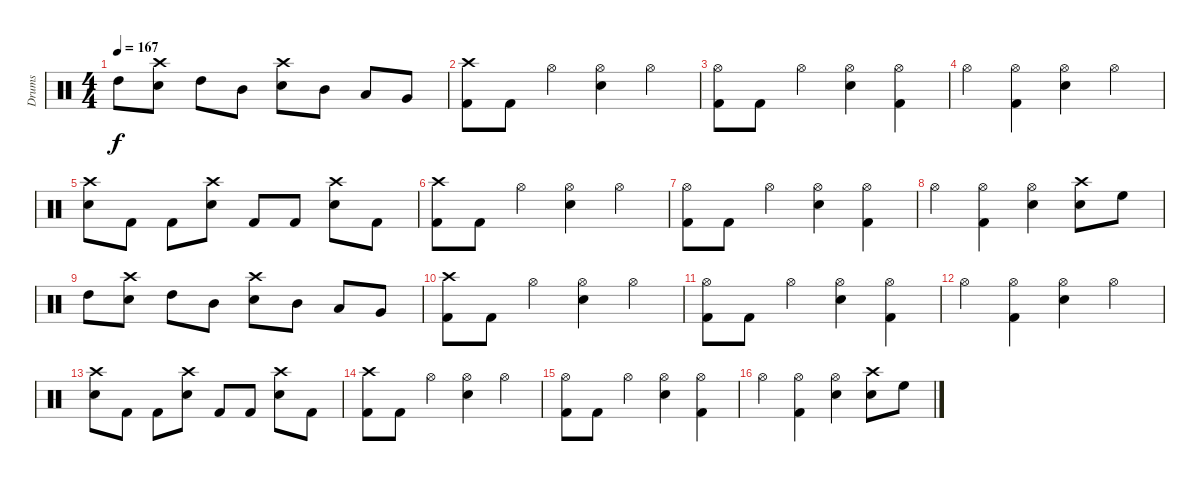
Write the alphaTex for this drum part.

\track ("Drums" "Drums") {instrument percussion}
\staff {score}
\articulation defaults
\ts (4 4)
\tempo 167
\clef neutral
\ks c "High Tom (hit)".8{dy f}
("Crash high (hit)" "Snare (hit) 2").8 "High Tom (hit)".8 "Mid Tom (hit)".8 ("Crash high (hit)" "Snare (hit) 2").8 "Mid Tom (hit)".8 "Low Tom (hit)".8 "Very Low Tom (hit)".8 |
("Crash high (hit)" "Kick (hit) 2").8 "Kick (hit) 2".8 "Hi-Hat (open)".4 ("Hi-Hat (open)" "Snare (hit) 2").4 "Hi-Hat (open)".4 |
("Hi-Hat (open)" "Kick (hit) 2").8 "Kick (hit) 2".8 "Hi-Hat (open)".4 ("Hi-Hat (open)" "Snare (hit) 2").4 ("Hi-Hat (open)" "Kick (hit) 2").4 |
"Hi-Hat (open)".4 ("Hi-Hat (open)" "Kick (hit) 2").4 ("Hi-Hat (open)" "Snare (hit) 2").4 "Hi-Hat (open)".4 |
("Crash high (hit)" "Snare (hit) 2").8 "Kick (hit) 2".8 "Kick (hit) 2".8 ("Crash high (hit)" "Snare (hit) 2").8 "Kick (hit) 2".8 "Kick (hit) 2".8 ("Crash high (hit)" "Snare (hit) 2").8 "Kick (hit) 2".8 |
("Crash high (hit)" "Kick (hit) 2").8 "Kick (hit) 2".8 "Hi-Hat (open)".4 ("Hi-Hat (open)" "Snare (hit) 2").4 "Hi-Hat (open)".4 |
("Hi-Hat (open)" "Kick (hit) 2").8 "Kick (hit) 2".8 "Hi-Hat (open)".4 ("Hi-Hat (open)" "Snare (hit) 2").4 ("Hi-Hat (open)" "Kick (hit) 2").4 |
"Hi-Hat (open)".4 ("Hi-Hat (open)" "Kick (hit) 2").4 ("Hi-Hat (open)" "Snare (hit) 2").4 ("Crash high (hit)" "Snare (hit) 2").8 "High Floor Tom (hit)".8 |
"High Tom (hit)".8 ("Crash high (hit)" "Snare (hit) 2").8 "High Tom (hit)".8 "Mid Tom (hit)".8 ("Crash high (hit)" "Snare (hit) 2").8 "Mid Tom (hit)".8 "Low Tom (hit)".8 "Very Low Tom (hit)".8 |
("Crash high (hit)" "Kick (hit) 2").8 "Kick (hit) 2".8 "Hi-Hat (open)".4 ("Hi-Hat (open)" "Snare (hit) 2").4 "Hi-Hat (open)".4 |
("Hi-Hat (open)" "Kick (hit) 2").8 "Kick (hit) 2".8 "Hi-Hat (open)".4 ("Hi-Hat (open)" "Snare (hit) 2").4 ("Hi-Hat (open)" "Kick (hit) 2").4 |
"Hi-Hat (open)".4 ("Hi-Hat (open)" "Kick (hit) 2").4 ("Hi-Hat (open)" "Snare (hit) 2").4 "Hi-Hat (open)".4 |
("Crash high (hit)" "Snare (hit) 2").8 "Kick (hit) 2".8 "Kick (hit) 2".8 ("Crash high (hit)" "Snare (hit) 2").8 "Kick (hit) 2".8 "Kick (hit) 2".8 ("Crash high (hit)" "Snare (hit) 2").8 "Kick (hit) 2".8 |
("Crash high (hit)" "Kick (hit) 2").8 "Kick (hit) 2".8 "Hi-Hat (open)".4 ("Hi-Hat (open)" "Snare (hit) 2").4 "Hi-Hat (open)".4 |
("Hi-Hat (open)" "Kick (hit) 2").8 "Kick (hit) 2".8 "Hi-Hat (open)".4 ("Hi-Hat (open)" "Snare (hit) 2").4 ("Hi-Hat (open)" "Kick (hit) 2").4 |
"Hi-Hat (open)".4 ("Hi-Hat (open)" "Kick (hit) 2").4 ("Hi-Hat (open)" "Snare (hit) 2").4 ("Crash high (hit)" "Snare (hit) 2").8 "High Floor Tom (hit)".8
